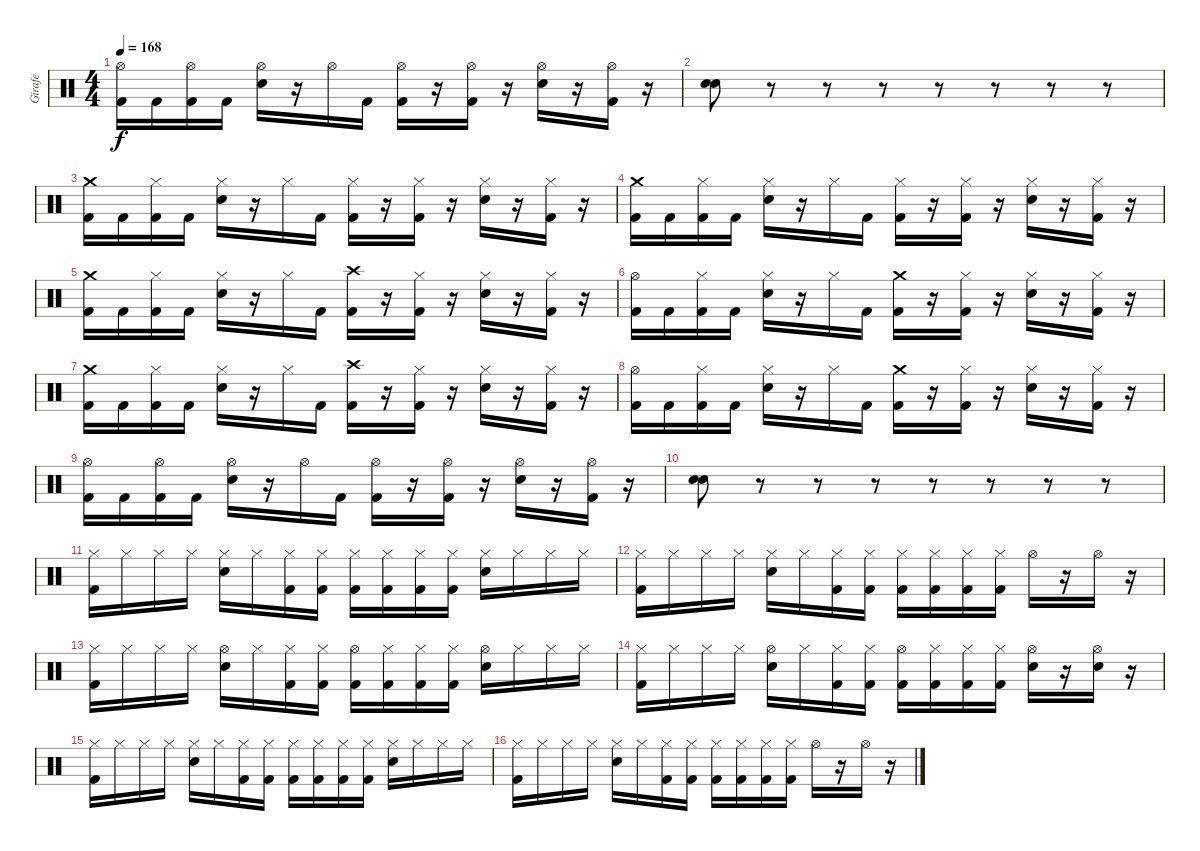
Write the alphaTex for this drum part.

\track ("Girafe" "Girafe") {instrument percussion}
\staff {score}
\articulation defaults
\ts (4 4)
\tempo 168
\clef neutral
\ks c
("Hi-Hat (open)" "Kick (hit) 2").16{dy f} "Kick (hit) 2".16 ("Hi-Hat (open)" "Kick (hit) 2").16 "Kick (hit) 2".16 ("Hi-Hat (open)" "Electric Snare (hit)").16 r.16 "Hi-Hat (open)".16 "Kick (hit) 2".16 ("Hi-Hat (open)" "Kick (hit) 2").16 r.16 ("Hi-Hat (open)" "Kick (hit) 2").16 r.16 ("Hi-Hat (open)" "Electric Snare (hit)").16 r.16 ("Hi-Hat (open)" "Kick (hit) 2").16 r.16 |
("Electric Snare (hit)" "Electric Snare (hit)").8{bd 60} r.8 r.8 r.8 r.8 r.8 r.8 r.8 |
("Crash medium (hit)" "Kick (hit) 2").16 "Kick (hit) 2".16 ("Hi-Hat (closed)" "Kick (hit) 2").16 "Kick (hit) 2".16 ("Hi-Hat (closed)" "Electric Snare (hit)").16 r.16 "Hi-Hat (closed)".16 "Kick (hit) 2".16 ("Hi-Hat (closed)" "Kick (hit) 2").16 r.16 ("Hi-Hat (closed)" "Kick (hit) 2").16 r.16 ("Hi-Hat (closed)" "Electric Snare (hit)").16 r.16 ("Hi-Hat (closed)" "Kick (hit) 2").16 r.16 |
("Crash medium (hit)" "Kick (hit) 2").16 "Kick (hit) 2".16 ("Hi-Hat (closed)" "Kick (hit) 2").16 "Kick (hit) 2".16 ("Hi-Hat (closed)" "Electric Snare (hit)").16 r.16 "Hi-Hat (closed)".16 "Kick (hit) 2".16 ("Hi-Hat (closed)" "Kick (hit) 2").16 r.16 ("Hi-Hat (closed)" "Kick (hit) 2").16 r.16 ("Hi-Hat (closed)" "Electric Snare (hit)").16 r.16 ("Hi-Hat (closed)" "Kick (hit) 2").16 r.16 |
("Crash medium (hit)" "Kick (hit) 2").16 "Kick (hit) 2".16 ("Hi-Hat (closed)" "Kick (hit) 2").16 "Kick (hit) 2".16 ("Hi-Hat (closed)" "Electric Snare (hit)").16 r.16 "Hi-Hat (closed)".16 "Kick (hit) 2".16 ("Crash high (hit)" "Kick (hit) 2").16 r.16 ("Hi-Hat (closed)" "Kick (hit) 2").16 r.16 ("Hi-Hat (closed)" "Electric Snare (hit)").16 r.16 ("Hi-Hat (closed)" "Kick (hit) 2").16 r.16 |
("Hi-Hat (open)" "Kick (hit) 2").16 "Kick (hit) 2".16 ("Hi-Hat (closed)" "Kick (hit) 2").16 "Kick (hit) 2".16 ("Hi-Hat (closed)" "Electric Snare (hit)").16 r.16 "Hi-Hat (closed)".16 "Kick (hit) 2".16 ("Crash medium (hit)" "Kick (hit) 2").16 r.16 ("Hi-Hat (closed)" "Kick (hit) 2").16 r.16 ("Hi-Hat (closed)" "Electric Snare (hit)").16 r.16 ("Hi-Hat (closed)" "Kick (hit) 2").16 r.16 |
("Crash medium (hit)" "Kick (hit) 2").16 "Kick (hit) 2".16 ("Hi-Hat (closed)" "Kick (hit) 2").16 "Kick (hit) 2".16 ("Hi-Hat (closed)" "Electric Snare (hit)").16 r.16 "Hi-Hat (closed)".16 "Kick (hit) 2".16 ("Crash high (hit)" "Kick (hit) 2").16 r.16 ("Hi-Hat (closed)" "Kick (hit) 2").16 r.16 ("Hi-Hat (closed)" "Electric Snare (hit)").16 r.16 ("Hi-Hat (closed)" "Kick (hit) 2").16 r.16 |
("Hi-Hat (open)" "Kick (hit) 2").16 "Kick (hit) 2".16 ("Hi-Hat (closed)" "Kick (hit) 2").16 "Kick (hit) 2".16 ("Hi-Hat (closed)" "Electric Snare (hit)").16 r.16 "Hi-Hat (closed)".16 "Kick (hit) 2".16 ("Crash medium (hit)" "Kick (hit) 2").16 r.16 ("Hi-Hat (closed)" "Kick (hit) 2").16 r.16 ("Hi-Hat (closed)" "Electric Snare (hit)").16 r.16 ("Hi-Hat (closed)" "Kick (hit) 2").16 r.16 |
("Hi-Hat (open)" "Kick (hit) 2").16 "Kick (hit) 2".16 ("Hi-Hat (open)" "Kick (hit) 2").16 "Kick (hit) 2".16 ("Hi-Hat (open)" "Electric Snare (hit)").16 r.16 "Hi-Hat (open)".16 "Kick (hit) 2".16 ("Hi-Hat (open)" "Kick (hit) 2").16 r.16 ("Hi-Hat (open)" "Kick (hit) 2").16 r.16 ("Hi-Hat (open)" "Electric Snare (hit)").16 r.16 ("Hi-Hat (open)" "Kick (hit) 2").16 r.16 |
("Electric Snare (hit)" "Electric Snare (hit)").8{bd 60} r.8 r.8 r.8 r.8 r.8 r.8 r.8 |
("Hi-Hat (closed)" "Kick (hit) 2").16 "Hi-Hat (closed)".16 "Hi-Hat (closed)".16 "Hi-Hat (closed)".16 ("Hi-Hat (closed)" "Electric Snare (hit)").16 "Hi-Hat (closed)".16 ("Hi-Hat (closed)" "Kick (hit) 2").16 ("Hi-Hat (closed)" "Kick (hit) 2").16 ("Hi-Hat (closed)" "Kick (hit) 2").16 ("Hi-Hat (closed)" "Kick (hit) 2").16 ("Hi-Hat (closed)" "Kick (hit) 2").16 ("Hi-Hat (closed)" "Kick (hit) 2").16 ("Hi-Hat (closed)" "Electric Snare (hit)").16 "Hi-Hat (closed)".16 "Hi-Hat (closed)".16 "Hi-Hat (closed)".16 |
("Hi-Hat (closed)" "Kick (hit) 2").16 "Hi-Hat (closed)".16 "Hi-Hat (closed)".16 "Hi-Hat (closed)".16 ("Hi-Hat (closed)" "Electric Snare (hit)").16 "Hi-Hat (closed)".16 ("Hi-Hat (closed)" "Kick (hit) 2").16 ("Hi-Hat (closed)" "Kick (hit) 2").16 ("Hi-Hat (closed)" "Kick (hit) 2").16 ("Hi-Hat (closed)" "Kick (hit) 2").16 ("Hi-Hat (closed)" "Kick (hit) 2").16 ("Hi-Hat (closed)" "Kick (hit) 2").16 "Hi-Hat (open)".16 r.16 "Hi-Hat (open)".16 r.16 |
("Hi-Hat (closed)" "Kick (hit) 2").16 "Hi-Hat (closed)".16 "Hi-Hat (closed)".16 "Hi-Hat (closed)".16 ("Hi-Hat (open)" "Electric Snare (hit)").16 "Hi-Hat (closed)".16 ("Hi-Hat (closed)" "Kick (hit) 2").16 ("Hi-Hat (closed)" "Kick (hit) 2").16 ("Hi-Hat (open)" "Kick (hit) 2").16 ("Hi-Hat (closed)" "Kick (hit) 2").16 ("Hi-Hat (closed)" "Kick (hit) 2").16 ("Hi-Hat (closed)" "Kick (hit) 2").16 ("Hi-Hat (open)" "Electric Snare (hit)").16 "Hi-Hat (closed)".16 "Hi-Hat (closed)".16 "Hi-Hat (closed)".16 |
("Hi-Hat (closed)" "Kick (hit) 2").16 "Hi-Hat (closed)".16 "Hi-Hat (closed)".16 "Hi-Hat (closed)".16 ("Hi-Hat (open)" "Electric Snare (hit)").16 "Hi-Hat (closed)".16 ("Hi-Hat (closed)" "Kick (hit) 2").16 ("Hi-Hat (closed)" "Kick (hit) 2").16 ("Hi-Hat (open)" "Kick (hit) 2").16 ("Hi-Hat (closed)" "Kick (hit) 2").16 ("Hi-Hat (closed)" "Kick (hit) 2").16 ("Hi-Hat (closed)" "Kick (hit) 2").16 ("Hi-Hat (open)" "Electric Snare (hit)").16 r.16 ("Hi-Hat (open)" "Electric Snare (hit)").16 r.16 |
("Hi-Hat (closed)" "Kick (hit) 2").16 "Hi-Hat (closed)".16 "Hi-Hat (closed)".16 "Hi-Hat (closed)".16 ("Hi-Hat (closed)" "Electric Snare (hit)").16 "Hi-Hat (closed)".16 ("Hi-Hat (closed)" "Kick (hit) 2").16 ("Hi-Hat (closed)" "Kick (hit) 2").16 ("Hi-Hat (closed)" "Kick (hit) 2").16 ("Hi-Hat (closed)" "Kick (hit) 2").16 ("Hi-Hat (closed)" "Kick (hit) 2").16 ("Hi-Hat (closed)" "Kick (hit) 2").16 ("Hi-Hat (closed)" "Electric Snare (hit)").16 "Hi-Hat (closed)".16 "Hi-Hat (closed)".16 "Hi-Hat (closed)".16 |
("Hi-Hat (closed)" "Kick (hit) 2").16 "Hi-Hat (closed)".16 "Hi-Hat (closed)".16 "Hi-Hat (closed)".16 ("Hi-Hat (closed)" "Electric Snare (hit)").16 "Hi-Hat (closed)".16 ("Hi-Hat (closed)" "Kick (hit) 2").16 ("Hi-Hat (closed)" "Kick (hit) 2").16 ("Hi-Hat (closed)" "Kick (hit) 2").16 ("Hi-Hat (closed)" "Kick (hit) 2").16 ("Hi-Hat (closed)" "Kick (hit) 2").16 ("Hi-Hat (closed)" "Kick (hit) 2").16 "Hi-Hat (open)".16 r.16 "Hi-Hat (open)".16 r.16
